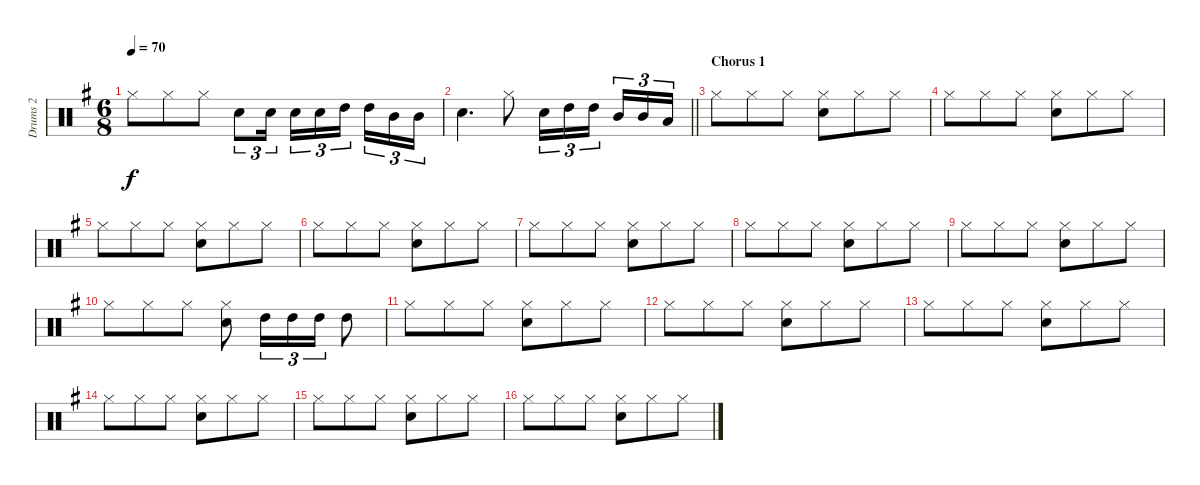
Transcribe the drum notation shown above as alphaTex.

\track ("Drums 2" "Drums 2") {instrument percussion}
\staff {score}
\articulation defaults
\ts (6 8)
\tempo 70
\clef neutral
\ks g "Hi-Hat (closed)".8{dy f} "Hi-Hat (closed)".8 "Hi-Hat (closed)".8 "Snare (hit) 2".8{tu (3 2)} "Snare (hit) 2".16{tu (3 2) beam splitsecondary} "Snare (hit) 2".16{tu (3 2)} "Snare (hit) 2".16{tu (3 2)} "High Tom (hit)".16{tu (3 2) beam splitsecondary} "High Tom (hit)".16{tu (3 2)} "Mid Tom (hit)".16{tu (3 2)} "Mid Tom (hit)".16{tu (3 2)}
|
\barLineRight lightlight "Snare (hit) 2".4{d} "Hi-Hat (closed)".8 "Snare (hit) 2".16{tu (3 2)} "High Tom (hit)".16{tu (3 2)} "High Tom (hit)".16{tu (3 2) beam splitsecondary} "Mid Tom (hit)".16{tu (3 2)} "Mid Tom (hit)".16{tu (3 2)} "Low Tom (hit)".16{tu (3 2)}
|
\section ("" "Chorus 1")
"Hi-Hat (closed)".8 "Hi-Hat (closed)".8 "Hi-Hat (closed)".8 ("Snare (hit) 2" "Hi-Hat (closed)").8 "Hi-Hat (closed)".8 "Hi-Hat (closed)".8 |
"Hi-Hat (closed)".8 "Hi-Hat (closed)".8 "Hi-Hat (closed)".8 ("Snare (hit) 2" "Hi-Hat (closed)").8 "Hi-Hat (closed)".8 "Hi-Hat (closed)".8 |
"Hi-Hat (closed)".8 "Hi-Hat (closed)".8 "Hi-Hat (closed)".8 ("Snare (hit) 2" "Hi-Hat (closed)").8 "Hi-Hat (closed)".8 "Hi-Hat (closed)".8 |
"Hi-Hat (closed)".8 "Hi-Hat (closed)".8 "Hi-Hat (closed)".8 ("Snare (hit) 2" "Hi-Hat (closed)").8 "Hi-Hat (closed)".8 "Hi-Hat (closed)".8 |
"Hi-Hat (closed)".8 "Hi-Hat (closed)".8 "Hi-Hat (closed)".8 ("Snare (hit) 2" "Hi-Hat (closed)").8 "Hi-Hat (closed)".8 "Hi-Hat (closed)".8 |
"Hi-Hat (closed)".8 "Hi-Hat (closed)".8 "Hi-Hat (closed)".8 ("Snare (hit) 2" "Hi-Hat (closed)").8 "Hi-Hat (closed)".8 "Hi-Hat (closed)".8 |
"Hi-Hat (closed)".8 "Hi-Hat (closed)".8 "Hi-Hat (closed)".8 ("Snare (hit) 2" "Hi-Hat (closed)").8 "Hi-Hat (closed)".8 "Hi-Hat (closed)".8 |
"Hi-Hat (closed)".8 "Hi-Hat (closed)".8 "Hi-Hat (closed)".8 ("Snare (hit) 2" "Hi-Hat (closed)").8 "High Tom (hit)".16{tu (3 2)} "High Tom (hit)".16{tu (3 2)} "High Tom (hit)".16{tu (3 2)} "High Tom (hit)".8 |
"Hi-Hat (closed)".8 "Hi-Hat (closed)".8 "Hi-Hat (closed)".8 ("Snare (hit) 2" "Hi-Hat (closed)").8 "Hi-Hat (closed)".8 "Hi-Hat (closed)".8 |
"Hi-Hat (closed)".8 "Hi-Hat (closed)".8 "Hi-Hat (closed)".8 ("Snare (hit) 2" "Hi-Hat (closed)").8 "Hi-Hat (closed)".8 "Hi-Hat (closed)".8 |
"Hi-Hat (closed)".8 "Hi-Hat (closed)".8 "Hi-Hat (closed)".8 ("Snare (hit) 2" "Hi-Hat (closed)").8 "Hi-Hat (closed)".8 "Hi-Hat (closed)".8 |
"Hi-Hat (closed)".8 "Hi-Hat (closed)".8 "Hi-Hat (closed)".8 ("Snare (hit) 2" "Hi-Hat (closed)").8 "Hi-Hat (closed)".8 "Hi-Hat (closed)".8 |
"Hi-Hat (closed)".8 "Hi-Hat (closed)".8 "Hi-Hat (closed)".8 ("Snare (hit) 2" "Hi-Hat (closed)").8 "Hi-Hat (closed)".8 "Hi-Hat (closed)".8 |
"Hi-Hat (closed)".8 "Hi-Hat (closed)".8 "Hi-Hat (closed)".8 ("Snare (hit) 2" "Hi-Hat (closed)").8 "Hi-Hat (closed)".8 "Hi-Hat (closed)".8
